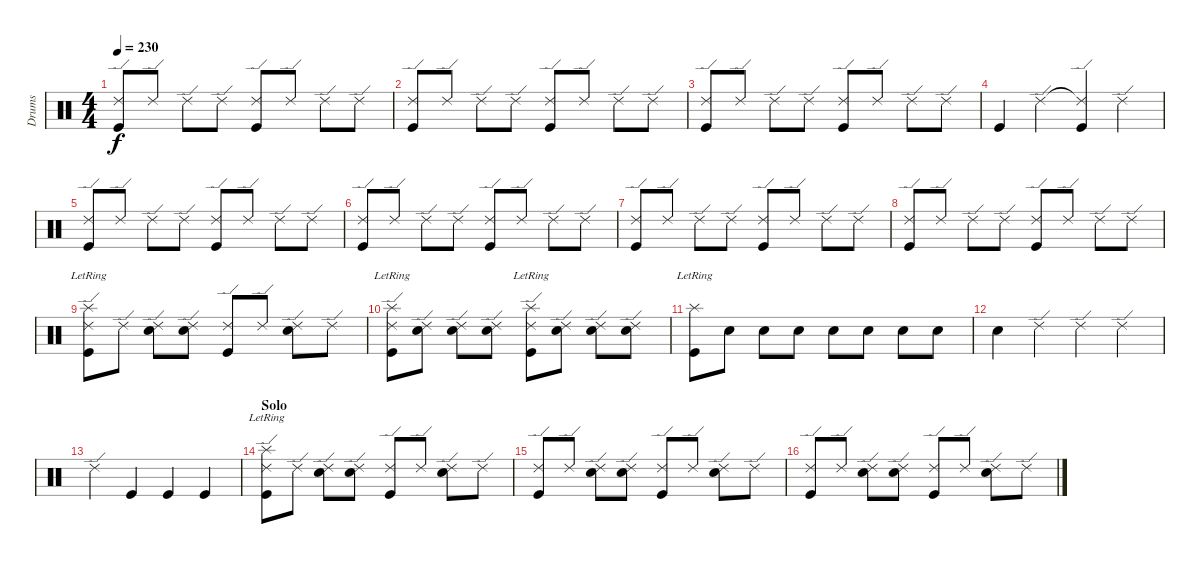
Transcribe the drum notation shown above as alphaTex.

\track ("Drums" "Drums") {instrument percussion}
\staff {score}
\articulation defaults
\ts (4 4)
\tempo 230
\clef neutral
\ks c
("Ride (edge) 2" "Kick (hit)").8{dy f} "Ride (edge) 2".8 "Ride (edge) 2".8 "Ride (edge) 2".8 ("Ride (edge) 2" "Kick (hit)").8 "Ride (edge) 2".8 "Ride (edge) 2".8 "Ride (edge) 2".8 |
("Ride (edge) 2" "Kick (hit)").8 "Ride (edge) 2".8 "Ride (edge) 2".8 "Ride (edge) 2".8 ("Ride (edge) 2" "Kick (hit)").8 "Ride (edge) 2".8 "Ride (edge) 2".8 "Ride (edge) 2".8 |
("Ride (edge) 2" "Kick (hit)").8 "Ride (edge) 2".8 "Ride (edge) 2".8 "Ride (edge) 2".8 ("Ride (edge) 2" "Kick (hit)").8 "Ride (edge) 2".8 "Ride (edge) 2".8 "Ride (edge) 2".8 |
"Kick (hit)".4 "Ride (edge) 2".4 ("Ride (edge) 2"{t} "Kick (hit)").4 "Ride (edge) 2".4 |
("Ride (edge) 2" "Kick (hit)").8 "Ride (edge) 2".8 "Ride (edge) 2".8 "Ride (edge) 2".8 ("Ride (edge) 2" "Kick (hit)").8 "Ride (edge) 2".8 "Ride (edge) 2".8 "Ride (edge) 2".8 |
("Ride (edge) 2" "Kick (hit)").8 "Ride (edge) 2".8 "Ride (edge) 2".8 "Ride (edge) 2".8 ("Ride (edge) 2" "Kick (hit)").8 "Ride (edge) 2".8 "Ride (edge) 2".8 "Ride (edge) 2".8 |
("Ride (edge) 2" "Kick (hit)").8 "Ride (edge) 2".8 "Ride (edge) 2".8 "Ride (edge) 2".8 ("Ride (edge) 2" "Kick (hit)").8 "Ride (edge) 2".8 "Ride (edge) 2".8 "Ride (edge) 2".8 |
("Ride (edge) 2" "Kick (hit)").8 "Ride (edge) 2".8 "Ride (edge) 2".8 "Ride (edge) 2".8 ("Ride (edge) 2" "Kick (hit)").8 "Ride (edge) 2".8 "Ride (edge) 2".8 "Ride (edge) 2".8 |
("Ride (edge) 2" "Splash (hit)"{lr} "Kick (hit)").8 "Ride (edge) 2".8 ("Ride (edge) 2" "Snare (hit) 2").8 ("Ride (edge) 2" "Snare (hit) 2").8 ("Ride (edge) 2" "Kick (hit)").8 "Ride (edge) 2".8 ("Ride (edge) 2" "Snare (hit) 2").8 "Ride (edge) 2".8 |
("Ride (edge) 2" "Splash (hit)"{lr} "Kick (hit)").8 ("Ride (edge) 2" "Snare (hit) 2").8 ("Ride (edge) 2" "Snare (hit) 2").8 ("Ride (edge) 2" "Snare (hit) 2").8 ("Ride (edge) 2" "Splash (hit)"{lr} "Kick (hit)").8 ("Ride (edge) 2" "Snare (hit) 2").8 ("Ride (edge) 2" "Snare (hit) 2").8 ("Ride (edge) 2" "Snare (hit) 2").8 |
("Splash (hit)"{lr} "Kick (hit)").8 "Snare (hit) 2".8 "Snare (hit) 2".8 "Snare (hit) 2".8 "Snare (hit) 2".8 "Snare (hit) 2".8 "Snare (hit) 2".8 "Snare (hit) 2".8 |
"Snare (hit) 2".4 "Ride (edge) 2".4 "Ride (edge) 2".4 "Ride (edge) 2".4 |
"Ride (edge) 2".4 "Kick (hit)".4 "Kick (hit)".4 "Kick (hit)".4 |
\section ("" "Solo")
("Ride (edge) 2" "Splash (hit)"{lr} "Kick (hit)").8 "Ride (edge) 2".8 ("Ride (edge) 2" "Snare (hit) 2").8 ("Ride (edge) 2" "Snare (hit) 2").8 ("Ride (edge) 2" "Kick (hit)").8 "Ride (edge) 2".8 ("Ride (edge) 2" "Snare (hit) 2").8 "Ride (edge) 2".8 |
("Ride (edge) 2" "Kick (hit)").8 "Ride (edge) 2".8 ("Ride (edge) 2" "Snare (hit) 2").8 ("Ride (edge) 2" "Snare (hit) 2").8 ("Ride (edge) 2" "Kick (hit)").8 "Ride (edge) 2".8 ("Ride (edge) 2" "Snare (hit) 2").8 "Ride (edge) 2".8 |
("Ride (edge) 2" "Kick (hit)").8 "Ride (edge) 2".8 ("Ride (edge) 2" "Snare (hit) 2").8 ("Ride (edge) 2" "Snare (hit) 2").8 ("Ride (edge) 2" "Kick (hit)").8 "Ride (edge) 2".8 ("Ride (edge) 2" "Snare (hit) 2").8 "Ride (edge) 2".8
